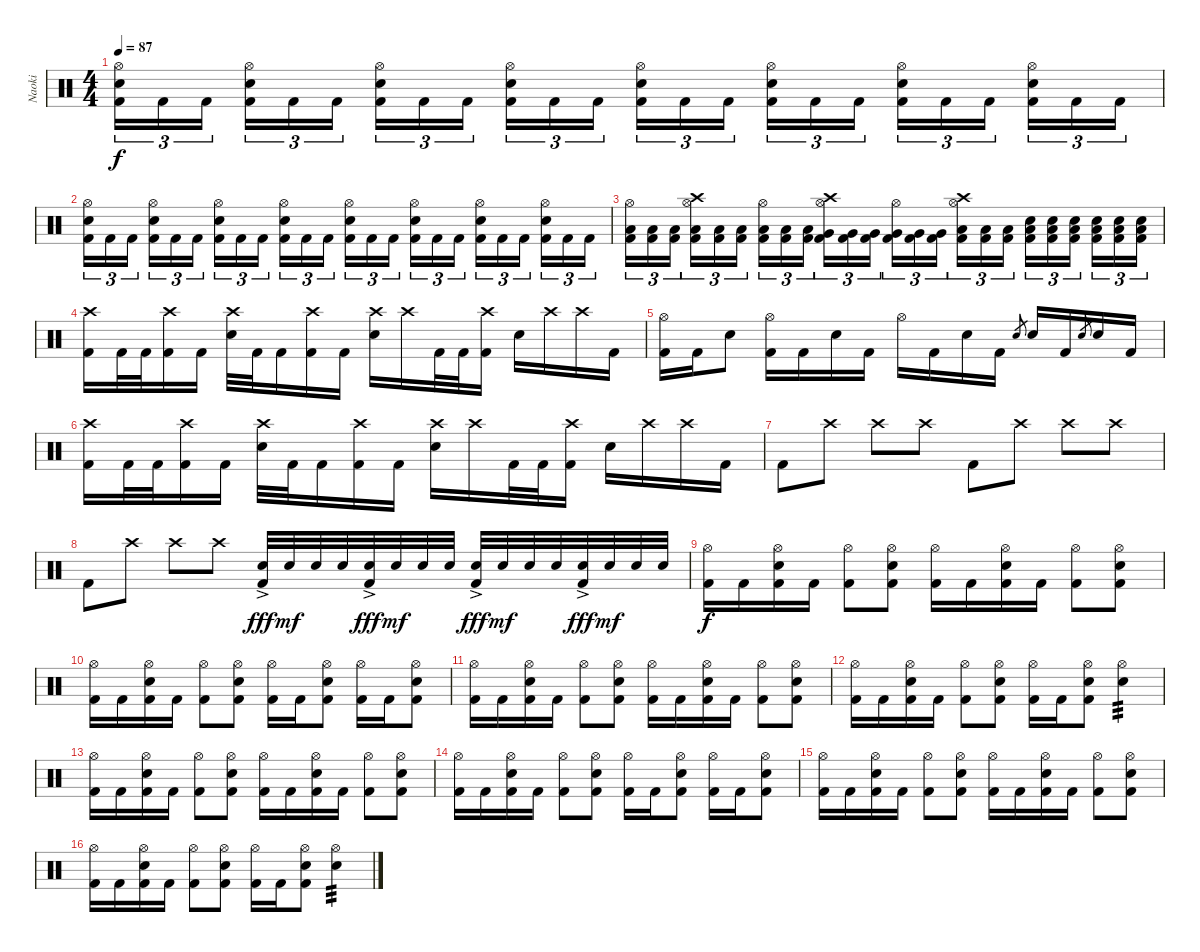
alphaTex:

\track ("Naoki" "Naoki") {instrument percussion}
\staff {score}
\articulation defaults
\ts (4 4)
\tempo 87
\clef neutral
\ks c
("Hi-Hat (open)" "Electric Snare (hit)" "Kick (hit) 2").16{tu (3 2) dy f} "Kick (hit) 2".16{tu (3 2)} "Kick (hit) 2".16{tu (3 2) beam splitsecondary} ("Hi-Hat (open)" "Electric Snare (hit)" "Kick (hit) 2").16{tu (3 2)} "Kick (hit) 2".16{tu (3 2)} "Kick (hit) 2".16{tu (3 2)} ("Hi-Hat (open)" "Electric Snare (hit)" "Kick (hit) 2").16{tu (3 2)} "Kick (hit) 2".16{tu (3 2)} "Kick (hit) 2".16{tu (3 2) beam splitsecondary} ("Hi-Hat (open)" "Electric Snare (hit)" "Kick (hit) 2").16{tu (3 2)} "Kick (hit) 2".16{tu (3 2)} "Kick (hit) 2".16{tu (3 2)} ("Hi-Hat (open)" "Electric Snare (hit)" "Kick (hit) 2").16{tu (3 2)} "Kick (hit) 2".16{tu (3 2)} "Kick (hit) 2".16{tu (3 2) beam splitsecondary} ("Hi-Hat (open)" "Electric Snare (hit)" "Kick (hit) 2").16{tu (3 2)} "Kick (hit) 2".16{tu (3 2)} "Kick (hit) 2".16{tu (3 2)} ("Hi-Hat (open)" "Electric Snare (hit)" "Kick (hit) 2").16{tu (3 2)} "Kick (hit) 2".16{tu (3 2)} "Kick (hit) 2".16{tu (3 2) beam splitsecondary} ("Hi-Hat (open)" "Electric Snare (hit)" "Kick (hit) 2").16{tu (3 2)} "Kick (hit) 2".16{tu (3 2)} "Kick (hit) 2".16{tu (3 2)} |
("Hi-Hat (open)" "Electric Snare (hit)" "Kick (hit) 2").16{tu (3 2)} "Kick (hit) 2".16{tu (3 2)} "Kick (hit) 2".16{tu (3 2) beam splitsecondary} ("Hi-Hat (open)" "Electric Snare (hit)" "Kick (hit) 2").16{tu (3 2)} "Kick (hit) 2".16{tu (3 2)} "Kick (hit) 2".16{tu (3 2)} ("Hi-Hat (open)" "Electric Snare (hit)" "Kick (hit) 2").16{tu (3 2)} "Kick (hit) 2".16{tu (3 2)} "Kick (hit) 2".16{tu (3 2) beam splitsecondary} ("Hi-Hat (open)" "Electric Snare (hit)" "Kick (hit) 2").16{tu (3 2)} "Kick (hit) 2".16{tu (3 2)} "Kick (hit) 2".16{tu (3 2)} ("Hi-Hat (open)" "Electric Snare (hit)" "Kick (hit) 2").16{tu (3 2)} "Kick (hit) 2".16{tu (3 2)} "Kick (hit) 2".16{tu (3 2) beam splitsecondary} ("Hi-Hat (open)" "Electric Snare (hit)" "Kick (hit) 2").16{tu (3 2)} "Kick (hit) 2".16{tu (3 2)} "Kick (hit) 2".16{tu (3 2)} ("Hi-Hat (open)" "Electric Snare (hit)" "Kick (hit) 2").16{tu (3 2)} "Kick (hit) 2".16{tu (3 2)} "Kick (hit) 2".16{tu (3 2) beam splitsecondary} ("Hi-Hat (open)" "Electric Snare (hit)" "Kick (hit) 2").16{tu (3 2)} "Kick (hit) 2".16{tu (3 2)} "Kick (hit) 2".16{tu (3 2)} |
("Hi-Hat (open)" "Low Tom (hit)" "Kick (hit) 2").16{tu (3 2)} ("Low Tom (hit)" "Kick (hit) 2").16{tu (3 2)} ("Low Tom (hit)" "Kick (hit) 2").16{tu (3 2) beam splitsecondary} ("Crash high (hit)" "Hi-Hat (open)" "Low Tom (hit)" "Kick (hit) 2").16{tu (3 2)} ("Low Tom (hit)" "Kick (hit) 2").16{tu (3 2)} ("Low Tom (hit)" "Kick (hit) 2").16{tu (3 2)} ("Hi-Hat (open)" "Low Tom (hit)" "Kick (hit) 2").16{tu (3 2)} ("Low Tom (hit)" "Kick (hit) 2").16{tu (3 2)} ("Low Tom (hit)" "Kick (hit) 2").16{tu (3 2) beam splitsecondary} ("Crash high (hit)" "Hi-Hat (open)" "Very Low Tom (hit)" "Kick (hit) 2").16{tu (3 2)} ("Very Low Tom (hit)" "Kick (hit) 2").16{tu (3 2)} ("Very Low Tom (hit)" "Kick (hit) 2").16{tu (3 2)} ("Hi-Hat (open)" "Very Low Tom (hit)" "Kick (hit) 2").16{tu (3 2)} ("Very Low Tom (hit)" "Kick (hit) 2").16{tu (3 2)} ("Very Low Tom (hit)" "Kick (hit) 2").16{tu (3 2) beam splitsecondary} ("Crash high (hit)" "Hi-Hat (open)" "Low Floor Tom (hit)" "Kick (hit) 2").16{tu (3 2)} ("Low Floor Tom (hit)" "Kick (hit) 2").16{tu (3 2)} ("Low Floor Tom (hit)" "Kick (hit) 2").16{tu (3 2)} ("Electric Snare (hit)" "Low Floor Tom (hit)" "Kick (hit) 2").16{tu (3 2)} ("Electric Snare (hit)" "Low Floor Tom (hit)" "Kick (hit) 2").16{tu (3 2)} ("Electric Snare (hit)" "Low Floor Tom (hit)" "Kick (hit) 2").16{tu (3 2) beam splitsecondary} ("Electric Snare (hit)" "Low Floor Tom (hit)" "Kick (hit) 2").16{tu (3 2)} ("Electric Snare (hit)" "Low Floor Tom (hit)" "Kick (hit) 2").16{tu (3 2)} ("Electric Snare (hit)" "Low Floor Tom (hit)" "Kick (hit) 2").16{tu (3 2)} |
("Crash high (hit)" "Kick (hit) 2").16 "Kick (hit) 2".32 "Kick (hit) 2".32 ("Crash high (hit)" "Kick (hit) 2").16 "Kick (hit) 2".16 ("Crash high (hit)" "Electric Snare (hit)").32 "Kick (hit) 2".32 "Kick (hit) 2".16 ("Crash high (hit)" "Kick (hit) 2").16 "Kick (hit) 2".16 ("Crash high (hit)" "Electric Snare (hit)").16 "Crash high (hit)".16 "Kick (hit) 2".32 "Kick (hit) 2".32 ("Crash high (hit)" "Kick (hit) 2").16 "Electric Snare (hit)".16 "Crash high (hit)".16 "Crash high (hit)".16 "Kick (hit) 2".16 |
("Hi-Hat (open)" "Kick (hit) 2").16 "Kick (hit) 2".16 "Electric Snare (hit)".8 ("Hi-Hat (open)" "Kick (hit) 2").16 "Kick (hit) 2".16 "Electric Snare (hit)".16 "Kick (hit) 2".16 "Hi-Hat (open)".16 "Kick (hit) 2".16 "Electric Snare (hit)".16 "Kick (hit) 2".16 "Electric Snare (hit)".8{gr} "Electric Snare (hit)".16 "Kick (hit) 2".16 "Electric Snare (hit)".8{gr} "Electric Snare (hit)".16 "Kick (hit) 2".16 |
("Crash high (hit)" "Kick (hit) 2").16 "Kick (hit) 2".32 "Kick (hit) 2".32 ("Crash high (hit)" "Kick (hit) 2").16 "Kick (hit) 2".16 ("Crash high (hit)" "Electric Snare (hit)").32 "Kick (hit) 2".32 "Kick (hit) 2".16 ("Crash high (hit)" "Kick (hit) 2").16 "Kick (hit) 2".16 ("Crash high (hit)" "Electric Snare (hit)").16 "Crash high (hit)".16 "Kick (hit) 2".32 "Kick (hit) 2".32 ("Crash high (hit)" "Kick (hit) 2").16 "Electric Snare (hit)".16 "Crash high (hit)".16 "Crash high (hit)".16 "Kick (hit) 2".16 |
"Kick (hit) 2".8 "Crash high (hit)".8 "Crash high (hit)".8 "Crash high (hit)".8 "Kick (hit) 2".8 "Crash high (hit)".8 "Crash high (hit)".8 "Crash high (hit)".8 |
"Kick (hit) 2".8 "Crash high (hit)".8 "Crash high (hit)".8 "Crash high (hit)".8 ("Electric Snare (hit)"{ac} "Kick (hit) 2").32{dy fff} "Electric Snare (hit)".32{dy mf} "Electric Snare (hit)".32 "Electric Snare (hit)".32 ("Electric Snare (hit)"{ac} "Kick (hit) 2").32{dy fff} "Electric Snare (hit)".32{dy mf} "Electric Snare (hit)".32 "Electric Snare (hit)".32 ("Electric Snare (hit)"{ac} "Kick (hit) 2").32{dy fff} "Electric Snare (hit)".32{dy mf} "Electric Snare (hit)".32 "Electric Snare (hit)".32 ("Electric Snare (hit)"{ac} "Kick (hit) 2").32{dy fff} "Electric Snare (hit)".32{dy mf} "Electric Snare (hit)".32 "Electric Snare (hit)".32 |
("Hi-Hat (open)" "Kick (hit) 2").16{dy f} "Kick (hit) 2".16 ("Hi-Hat (open)" "Electric Snare (hit)" "Kick (hit) 2").16 "Kick (hit) 2".16 ("Hi-Hat (open)" "Kick (hit) 2").8 ("Hi-Hat (open)" "Electric Snare (hit)" "Kick (hit) 2").8 ("Hi-Hat (open)" "Kick (hit) 2").16 "Kick (hit) 2".16 ("Hi-Hat (open)" "Electric Snare (hit)" "Kick (hit) 2").16 "Kick (hit) 2".16 ("Hi-Hat (open)" "Kick (hit) 2").8 ("Hi-Hat (open)" "Electric Snare (hit)" "Kick (hit) 2").8 |
("Hi-Hat (open)" "Kick (hit) 2").16 "Kick (hit) 2".16 ("Hi-Hat (open)" "Electric Snare (hit)" "Kick (hit) 2").16 "Kick (hit) 2".16 ("Hi-Hat (open)" "Kick (hit) 2").8 ("Hi-Hat (open)" "Electric Snare (hit)" "Kick (hit) 2").8 ("Hi-Hat (open)" "Kick (hit) 2").16 "Kick (hit) 2".16 ("Hi-Hat (open)" "Electric Snare (hit)" "Kick (hit) 2").8 ("Hi-Hat (open)" "Kick (hit) 2").16 "Kick (hit) 2".16 ("Hi-Hat (open)" "Electric Snare (hit)" "Kick (hit) 2").8 |
("Hi-Hat (open)" "Kick (hit) 2").16 "Kick (hit) 2".16 ("Hi-Hat (open)" "Electric Snare (hit)" "Kick (hit) 2").16 "Kick (hit) 2".16 ("Hi-Hat (open)" "Kick (hit) 2").8 ("Hi-Hat (open)" "Electric Snare (hit)" "Kick (hit) 2").8 ("Hi-Hat (open)" "Kick (hit) 2").16 "Kick (hit) 2".16 ("Hi-Hat (open)" "Electric Snare (hit)" "Kick (hit) 2").16 "Kick (hit) 2".16 ("Hi-Hat (open)" "Kick (hit) 2").8 ("Hi-Hat (open)" "Electric Snare (hit)" "Kick (hit) 2").8 |
("Hi-Hat (open)" "Kick (hit) 2").16 "Kick (hit) 2".16 ("Hi-Hat (open)" "Electric Snare (hit)" "Kick (hit) 2").16 "Kick (hit) 2".16 ("Hi-Hat (open)" "Kick (hit) 2").8 ("Hi-Hat (open)" "Electric Snare (hit)" "Kick (hit) 2").8 ("Hi-Hat (open)" "Kick (hit) 2").16 "Kick (hit) 2".16 ("Hi-Hat (open)" "Electric Snare (hit)" "Kick (hit) 2").8 ("Hi-Hat (open)" "Electric Snare (hit)").4{tp 3} |
("Hi-Hat (open)" "Kick (hit) 2").16 "Kick (hit) 2".16 ("Hi-Hat (open)" "Electric Snare (hit)" "Kick (hit) 2").16 "Kick (hit) 2".16 ("Hi-Hat (open)" "Kick (hit) 2").8 ("Hi-Hat (open)" "Electric Snare (hit)" "Kick (hit) 2").8 ("Hi-Hat (open)" "Kick (hit) 2").16 "Kick (hit) 2".16 ("Hi-Hat (open)" "Electric Snare (hit)" "Kick (hit) 2").16 "Kick (hit) 2".16 ("Hi-Hat (open)" "Kick (hit) 2").8 ("Hi-Hat (open)" "Electric Snare (hit)" "Kick (hit) 2").8 |
("Hi-Hat (open)" "Kick (hit) 2").16 "Kick (hit) 2".16 ("Hi-Hat (open)" "Electric Snare (hit)" "Kick (hit) 2").16 "Kick (hit) 2".16 ("Hi-Hat (open)" "Kick (hit) 2").8 ("Hi-Hat (open)" "Electric Snare (hit)" "Kick (hit) 2").8 ("Hi-Hat (open)" "Kick (hit) 2").16 "Kick (hit) 2".16 ("Hi-Hat (open)" "Electric Snare (hit)" "Kick (hit) 2").8 ("Hi-Hat (open)" "Kick (hit) 2").16 "Kick (hit) 2".16 ("Hi-Hat (open)" "Electric Snare (hit)" "Kick (hit) 2").8 |
("Hi-Hat (open)" "Kick (hit) 2").16 "Kick (hit) 2".16 ("Hi-Hat (open)" "Electric Snare (hit)" "Kick (hit) 2").16 "Kick (hit) 2".16 ("Hi-Hat (open)" "Kick (hit) 2").8 ("Hi-Hat (open)" "Electric Snare (hit)" "Kick (hit) 2").8 ("Hi-Hat (open)" "Kick (hit) 2").16 "Kick (hit) 2".16 ("Hi-Hat (open)" "Electric Snare (hit)" "Kick (hit) 2").16 "Kick (hit) 2".16 ("Hi-Hat (open)" "Kick (hit) 2").8 ("Hi-Hat (open)" "Electric Snare (hit)" "Kick (hit) 2").8 |
("Hi-Hat (open)" "Kick (hit) 2").16 "Kick (hit) 2".16 ("Hi-Hat (open)" "Electric Snare (hit)" "Kick (hit) 2").16 "Kick (hit) 2".16 ("Hi-Hat (open)" "Kick (hit) 2").8 ("Hi-Hat (open)" "Electric Snare (hit)" "Kick (hit) 2").8 ("Hi-Hat (open)" "Kick (hit) 2").16 "Kick (hit) 2".16 ("Hi-Hat (open)" "Electric Snare (hit)" "Kick (hit) 2").8 ("Hi-Hat (open)" "Electric Snare (hit)").4{tp 3}
